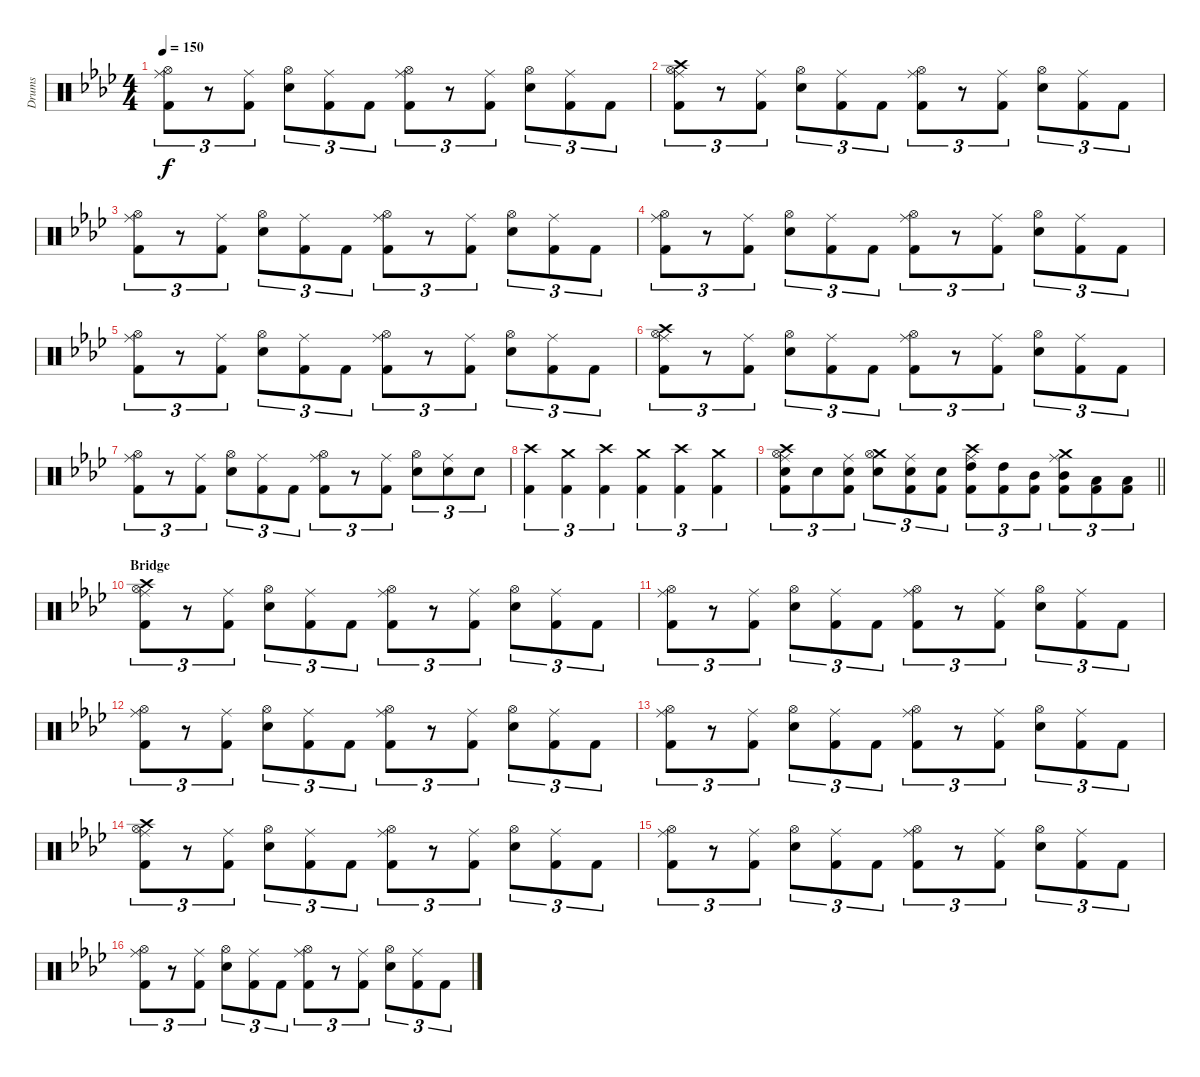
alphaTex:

\track ("Drums" "Drums") {instrument percussion}
\staff {score}
\articulation defaults
\ts (4 4)
\tempo 150
\clef neutral
\ks fminor
("Hi-Hat (open)" "Ride (middle)" "Kick (hit) 2").8{tu (3 2) dy f} r.8{tu (3 2)} ("Ride (middle)" "Kick (hit) 2").8{tu (3 2)} ("Hi-Hat (open)" "Snare (hit) 2").8{tu (3 2)} ("Ride (middle)" "Kick (hit) 2").8{tu (3 2)} "Kick (hit) 2".8{tu (3 2)} ("Hi-Hat (open)" "Ride (middle)" "Kick (hit) 2").8{tu (3 2)} r.8{tu (3 2)} ("Ride (middle)" "Kick (hit) 2").8{tu (3 2)} ("Hi-Hat (open)" "Snare (hit) 2").8{tu (3 2)} ("Ride (middle)" "Kick (hit) 2").8{tu (3 2)} "Kick (hit) 2".8{tu (3 2)} |
("Crash high (hit)" "Hi-Hat (open)" "Ride (middle)" "Kick (hit) 2").8{tu (3 2)} r.8{tu (3 2)} ("Ride (middle)" "Kick (hit) 2").8{tu (3 2)} ("Hi-Hat (open)" "Snare (hit) 2").8{tu (3 2)} ("Ride (middle)" "Kick (hit) 2").8{tu (3 2)} "Kick (hit) 2".8{tu (3 2)} ("Hi-Hat (open)" "Ride (middle)" "Kick (hit) 2").8{tu (3 2)} r.8{tu (3 2)} ("Ride (middle)" "Kick (hit) 2").8{tu (3 2)} ("Hi-Hat (open)" "Snare (hit) 2").8{tu (3 2)} ("Ride (middle)" "Kick (hit) 2").8{tu (3 2)} "Kick (hit) 2".8{tu (3 2)} |
("Hi-Hat (open)" "Ride (middle)" "Kick (hit) 2").8{tu (3 2)} r.8{tu (3 2)} ("Ride (middle)" "Kick (hit) 2").8{tu (3 2)} ("Hi-Hat (open)" "Snare (hit) 2").8{tu (3 2)} ("Ride (middle)" "Kick (hit) 2").8{tu (3 2)} "Kick (hit) 2".8{tu (3 2)} ("Hi-Hat (open)" "Ride (middle)" "Kick (hit) 2").8{tu (3 2)} r.8{tu (3 2)} ("Ride (middle)" "Kick (hit) 2").8{tu (3 2)} ("Hi-Hat (open)" "Snare (hit) 2").8{tu (3 2)} ("Ride (middle)" "Kick (hit) 2").8{tu (3 2)} "Kick (hit) 2".8{tu (3 2)} |
("Hi-Hat (open)" "Ride (middle)" "Kick (hit) 2").8{tu (3 2)} r.8{tu (3 2)} ("Ride (middle)" "Kick (hit) 2").8{tu (3 2)} ("Hi-Hat (open)" "Snare (hit) 2").8{tu (3 2)} ("Ride (middle)" "Kick (hit) 2").8{tu (3 2)} "Kick (hit) 2".8{tu (3 2)} ("Hi-Hat (open)" "Ride (middle)" "Kick (hit) 2").8{tu (3 2)} r.8{tu (3 2)} ("Ride (middle)" "Kick (hit) 2").8{tu (3 2)} ("Hi-Hat (open)" "Snare (hit) 2").8{tu (3 2)} ("Ride (middle)" "Kick (hit) 2").8{tu (3 2)} "Kick (hit) 2".8{tu (3 2)} |
("Hi-Hat (open)" "Ride (middle)" "Kick (hit) 2").8{tu (3 2)} r.8{tu (3 2)} ("Ride (middle)" "Kick (hit) 2").8{tu (3 2)} ("Hi-Hat (open)" "Snare (hit) 2").8{tu (3 2)} ("Ride (middle)" "Kick (hit) 2").8{tu (3 2)} "Kick (hit) 2".8{tu (3 2)} ("Hi-Hat (open)" "Ride (middle)" "Kick (hit) 2").8{tu (3 2)} r.8{tu (3 2)} ("Ride (middle)" "Kick (hit) 2").8{tu (3 2)} ("Hi-Hat (open)" "Snare (hit) 2").8{tu (3 2)} ("Ride (middle)" "Kick (hit) 2").8{tu (3 2)} "Kick (hit) 2".8{tu (3 2)} |
("Crash high (hit)" "Hi-Hat (open)" "Ride (middle)" "Kick (hit) 2").8{tu (3 2)} r.8{tu (3 2)} ("Ride (middle)" "Kick (hit) 2").8{tu (3 2)} ("Hi-Hat (open)" "Snare (hit) 2").8{tu (3 2)} ("Ride (middle)" "Kick (hit) 2").8{tu (3 2)} "Kick (hit) 2".8{tu (3 2)} ("Hi-Hat (open)" "Ride (middle)" "Kick (hit) 2").8{tu (3 2)} r.8{tu (3 2)} ("Ride (middle)" "Kick (hit) 2").8{tu (3 2)} ("Hi-Hat (open)" "Snare (hit) 2").8{tu (3 2)} ("Ride (middle)" "Kick (hit) 2").8{tu (3 2)} "Kick (hit) 2".8{tu (3 2)} |
("Hi-Hat (open)" "Ride (middle)" "Kick (hit) 2").8{tu (3 2)} r.8{tu (3 2)} ("Ride (middle)" "Kick (hit) 2").8{tu (3 2)} ("Hi-Hat (open)" "Snare (hit) 2").8{tu (3 2)} ("Ride (middle)" "Kick (hit) 2").8{tu (3 2)} "Kick (hit) 2".8{tu (3 2)} ("Hi-Hat (open)" "Ride (middle)" "Kick (hit) 2").8{tu (3 2)} r.8{tu (3 2)} ("Ride (middle)" "Kick (hit) 2").8{tu (3 2)} ("Hi-Hat (open)" "Snare (hit) 2").8{tu (3 2)} ("Ride (middle)" "Snare (hit) 2").8{tu (3 2)} "Snare (hit) 2".8{tu (3 2)} |
("Crash high (hit)" "Kick (hit) 2").4{tu (3 2)} ("Crash medium (hit)" "Kick (hit) 2").4{tu (3 2)} ("Crash high (hit)" "Kick (hit) 2").4{tu (3 2)} ("Crash medium (hit)" "Kick (hit) 2").4{tu (3 2)} ("Crash high (hit)" "Kick (hit) 2").4{tu (3 2)} ("Crash medium (hit)" "Kick (hit) 2").4{tu (3 2)} |
\barLineRight lightlight
("Crash high (hit)" "Hi-Hat (open)" "Ride (middle)" "Snare (hit) 2" "Kick (hit) 2").8{tu (3 2)} "Snare (hit) 2".8{tu (3 2)} ("Ride (middle)" "Snare (hit) 2" "Kick (hit) 2").8{tu (3 2)} ("Crash medium (hit)" "Hi-Hat (open)" "Snare (hit) 2").8{tu (3 2)} ("Ride (middle)" "Snare (hit) 2" "Kick (hit) 2").8{tu (3 2)} ("Snare (hit) 2" "Kick (hit) 2").8{tu (3 2)} ("Ride (middle)" "Crash high (hit)" "High Tom (hit)" "Kick (hit) 2").8{tu (3 2)} ("High Tom (hit)" "Kick (hit) 2").8{tu (3 2)} ("Mid Tom (hit)" "Kick (hit) 2").8{tu (3 2)} ("Ride (middle)" "Crash medium (hit)" "Mid Tom (hit)" "Kick (hit) 2").8{tu (3 2)} ("Low Tom (hit)" "Kick (hit) 2").8{tu (3 2)} ("Low Tom (hit)" "Kick (hit) 2").8{tu (3 2)} |
\section ("" "Bridge")
("Crash high (hit)" "Hi-Hat (open)" "Ride (middle)" "Kick (hit) 2").8{tu (3 2)} r.8{tu (3 2)} ("Ride (middle)" "Kick (hit) 2").8{tu (3 2)} ("Hi-Hat (open)" "Snare (hit) 2").8{tu (3 2)} ("Ride (middle)" "Kick (hit) 2").8{tu (3 2)} "Kick (hit) 2".8{tu (3 2)} ("Hi-Hat (open)" "Ride (middle)" "Kick (hit) 2").8{tu (3 2)} r.8{tu (3 2)} ("Ride (middle)" "Kick (hit) 2").8{tu (3 2)} ("Hi-Hat (open)" "Snare (hit) 2").8{tu (3 2)} ("Ride (middle)" "Kick (hit) 2").8{tu (3 2)} "Kick (hit) 2".8{tu (3 2)} |
("Hi-Hat (open)" "Ride (middle)" "Kick (hit) 2").8{tu (3 2)} r.8{tu (3 2)} ("Ride (middle)" "Kick (hit) 2").8{tu (3 2)} ("Hi-Hat (open)" "Snare (hit) 2").8{tu (3 2)} ("Ride (middle)" "Kick (hit) 2").8{tu (3 2)} "Kick (hit) 2".8{tu (3 2)} ("Hi-Hat (open)" "Ride (middle)" "Kick (hit) 2").8{tu (3 2)} r.8{tu (3 2)} ("Ride (middle)" "Kick (hit) 2").8{tu (3 2)} ("Hi-Hat (open)" "Snare (hit) 2").8{tu (3 2)} ("Ride (middle)" "Kick (hit) 2").8{tu (3 2)} "Kick (hit) 2".8{tu (3 2)} |
("Hi-Hat (open)" "Ride (middle)" "Kick (hit) 2").8{tu (3 2)} r.8{tu (3 2)} ("Ride (middle)" "Kick (hit) 2").8{tu (3 2)} ("Hi-Hat (open)" "Snare (hit) 2").8{tu (3 2)} ("Ride (middle)" "Kick (hit) 2").8{tu (3 2)} "Kick (hit) 2".8{tu (3 2)} ("Hi-Hat (open)" "Ride (middle)" "Kick (hit) 2").8{tu (3 2)} r.8{tu (3 2)} ("Ride (middle)" "Kick (hit) 2").8{tu (3 2)} ("Hi-Hat (open)" "Snare (hit) 2").8{tu (3 2)} ("Ride (middle)" "Kick (hit) 2").8{tu (3 2)} "Kick (hit) 2".8{tu (3 2)} |
("Hi-Hat (open)" "Ride (middle)" "Kick (hit) 2").8{tu (3 2)} r.8{tu (3 2)} ("Ride (middle)" "Kick (hit) 2").8{tu (3 2)} ("Hi-Hat (open)" "Snare (hit) 2").8{tu (3 2)} ("Ride (middle)" "Kick (hit) 2").8{tu (3 2)} "Kick (hit) 2".8{tu (3 2)} ("Hi-Hat (open)" "Ride (middle)" "Kick (hit) 2").8{tu (3 2)} r.8{tu (3 2)} ("Ride (middle)" "Kick (hit) 2").8{tu (3 2)} ("Hi-Hat (open)" "Snare (hit) 2").8{tu (3 2)} ("Ride (middle)" "Kick (hit) 2").8{tu (3 2)} "Kick (hit) 2".8{tu (3 2)} |
("Crash high (hit)" "Hi-Hat (open)" "Ride (middle)" "Kick (hit) 2").8{tu (3 2)} r.8{tu (3 2)} ("Ride (middle)" "Kick (hit) 2").8{tu (3 2)} ("Hi-Hat (open)" "Snare (hit) 2").8{tu (3 2)} ("Ride (middle)" "Kick (hit) 2").8{tu (3 2)} "Kick (hit) 2".8{tu (3 2)} ("Hi-Hat (open)" "Ride (middle)" "Kick (hit) 2").8{tu (3 2)} r.8{tu (3 2)} ("Ride (middle)" "Kick (hit) 2").8{tu (3 2)} ("Hi-Hat (open)" "Snare (hit) 2").8{tu (3 2)} ("Ride (middle)" "Kick (hit) 2").8{tu (3 2)} "Kick (hit) 2".8{tu (3 2)} |
("Hi-Hat (open)" "Ride (middle)" "Kick (hit) 2").8{tu (3 2)} r.8{tu (3 2)} ("Ride (middle)" "Kick (hit) 2").8{tu (3 2)} ("Hi-Hat (open)" "Snare (hit) 2").8{tu (3 2)} ("Ride (middle)" "Kick (hit) 2").8{tu (3 2)} "Kick (hit) 2".8{tu (3 2)} ("Hi-Hat (open)" "Ride (middle)" "Kick (hit) 2").8{tu (3 2)} r.8{tu (3 2)} ("Ride (middle)" "Kick (hit) 2").8{tu (3 2)} ("Hi-Hat (open)" "Snare (hit) 2").8{tu (3 2)} ("Ride (middle)" "Kick (hit) 2").8{tu (3 2)} "Kick (hit) 2".8{tu (3 2)} |
("Hi-Hat (open)" "Ride (middle)" "Kick (hit) 2").8{tu (3 2)} r.8{tu (3 2)} ("Ride (middle)" "Kick (hit) 2").8{tu (3 2)} ("Hi-Hat (open)" "Snare (hit) 2").8{tu (3 2)} ("Ride (middle)" "Kick (hit) 2").8{tu (3 2)} "Kick (hit) 2".8{tu (3 2)} ("Hi-Hat (open)" "Ride (middle)" "Kick (hit) 2").8{tu (3 2)} r.8{tu (3 2)} ("Ride (middle)" "Kick (hit) 2").8{tu (3 2)} ("Hi-Hat (open)" "Snare (hit) 2").8{tu (3 2)} ("Ride (middle)" "Kick (hit) 2").8{tu (3 2)} "Kick (hit) 2".8{tu (3 2)}
